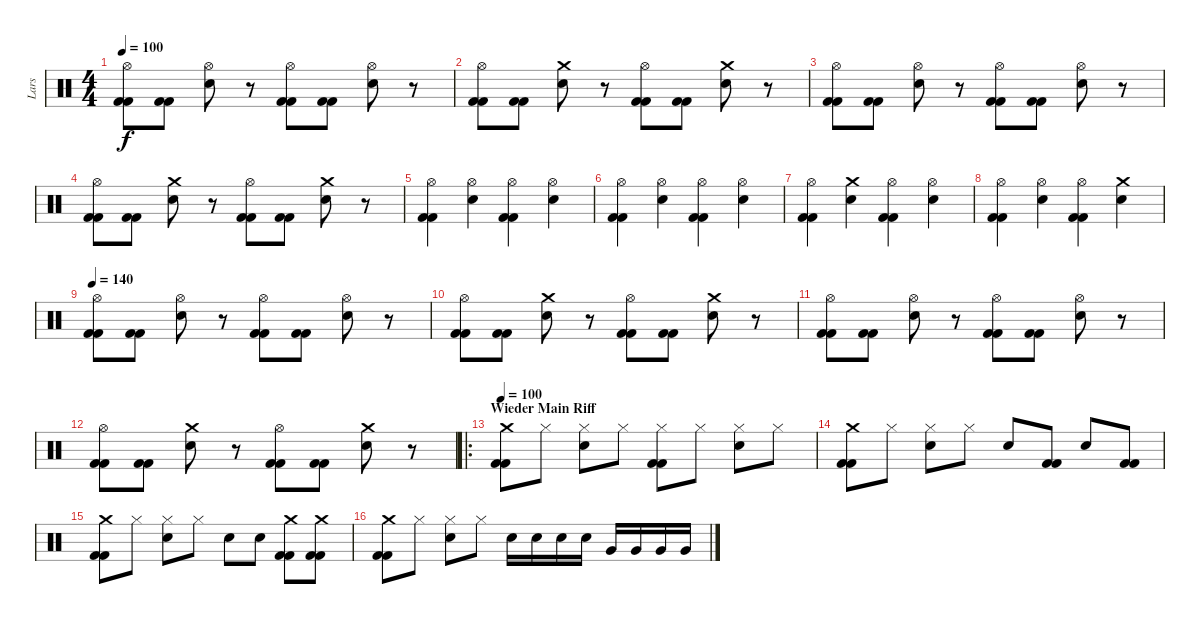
\track ("Lars" "Lars") {instrument percussion}
\staff {score}
\articulation defaults
\ts (4 4)
\tempo 100
\clef neutral
\ks c
("Hi-Hat (open)" "Kick (hit) 2" "Kick (hit) 2").8{dy f} ("Kick (hit) 2" "Kick (hit) 2").8 ("Hi-Hat (open)" "Electric Snare (hit)").8 r.8 ("Kick (hit) 2" "Kick (hit) 2" "Hi-Hat (open)").8 ("Kick (hit) 2" "Kick (hit) 2").8 ("Electric Snare (hit)" "Hi-Hat (open)").8 r.8 |
("Hi-Hat (open)" "Kick (hit) 2" "Kick (hit) 2").8 ("Kick (hit) 2" "Kick (hit) 2").8 ("Crash medium (hit)" "Electric Snare (hit)").8 r.8 ("Kick (hit) 2" "Kick (hit) 2" "Hi-Hat (open)").8 ("Kick (hit) 2" "Kick (hit) 2").8 ("Electric Snare (hit)" "Crash medium (hit)").8 r.8 |
("Hi-Hat (open)" "Kick (hit) 2" "Kick (hit) 2").8 ("Kick (hit) 2" "Kick (hit) 2").8 ("Hi-Hat (open)" "Electric Snare (hit)").8 r.8 ("Kick (hit) 2" "Kick (hit) 2" "Hi-Hat (open)").8 ("Kick (hit) 2" "Kick (hit) 2").8 ("Electric Snare (hit)" "Hi-Hat (open)").8 r.8 |
("Hi-Hat (open)" "Kick (hit) 2" "Kick (hit) 2").8 ("Kick (hit) 2" "Kick (hit) 2").8 ("Crash medium (hit)" "Electric Snare (hit)").8 r.8 ("Kick (hit) 2" "Kick (hit) 2" "Hi-Hat (open)").8 ("Kick (hit) 2" "Kick (hit) 2").8 ("Electric Snare (hit)" "Crash medium (hit)").8 r.8 |
("Hi-Hat (open)" "Kick (hit) 2" "Kick (hit) 2").4 ("Electric Snare (hit)" "Hi-Hat (open)").4 ("Hi-Hat (open)" "Kick (hit) 2" "Kick (hit) 2").4 ("Hi-Hat (open)" "Electric Snare (hit)").4 |
("Hi-Hat (open)" "Kick (hit) 2" "Kick (hit) 2").4 ("Electric Snare (hit)" "Hi-Hat (open)").4 ("Hi-Hat (open)" "Kick (hit) 2" "Kick (hit) 2").4 ("Hi-Hat (open)" "Electric Snare (hit)").4 |
("Hi-Hat (open)" "Kick (hit) 2" "Kick (hit) 2").4 ("Electric Snare (hit)" "Crash medium (hit)").4 ("Hi-Hat (open)" "Kick (hit) 2" "Kick (hit) 2").4 ("Hi-Hat (open)" "Electric Snare (hit)").4 |
("Hi-Hat (open)" "Kick (hit) 2" "Kick (hit) 2").4 ("Electric Snare (hit)" "Hi-Hat (open)").4 ("Hi-Hat (open)" "Kick (hit) 2" "Kick (hit) 2").4 ("Crash medium (hit)" "Electric Snare (hit)").4 |
\tempo 140
("Hi-Hat (open)" "Kick (hit) 2" "Kick (hit) 2").8 ("Kick (hit) 2" "Kick (hit) 2").8 ("Hi-Hat (open)" "Electric Snare (hit)").8 r.8 ("Kick (hit) 2" "Kick (hit) 2" "Hi-Hat (open)").8 ("Kick (hit) 2" "Kick (hit) 2").8 ("Electric Snare (hit)" "Hi-Hat (open)").8 r.8 |
("Hi-Hat (open)" "Kick (hit) 2" "Kick (hit) 2").8 ("Kick (hit) 2" "Kick (hit) 2").8 ("Crash medium (hit)" "Electric Snare (hit)").8 r.8 ("Kick (hit) 2" "Kick (hit) 2" "Hi-Hat (open)").8 ("Kick (hit) 2" "Kick (hit) 2").8 ("Electric Snare (hit)" "Crash medium (hit)").8 r.8 |
("Hi-Hat (open)" "Kick (hit) 2" "Kick (hit) 2").8 ("Kick (hit) 2" "Kick (hit) 2").8 ("Hi-Hat (open)" "Electric Snare (hit)").8 r.8 ("Kick (hit) 2" "Kick (hit) 2" "Hi-Hat (open)").8 ("Kick (hit) 2" "Kick (hit) 2").8 ("Electric Snare (hit)" "Hi-Hat (open)").8 r.8 |
("Hi-Hat (open)" "Kick (hit) 2" "Kick (hit) 2").8 ("Kick (hit) 2" "Kick (hit) 2").8 ("Crash medium (hit)" "Electric Snare (hit)").8 r.8 ("Kick (hit) 2" "Kick (hit) 2" "Hi-Hat (open)").8 ("Kick (hit) 2" "Kick (hit) 2").8 ("Electric Snare (hit)" "Crash medium (hit)").8 r.8 |
\ro
\section ("" "Wieder Main Riff")
\tempo 100
("Crash medium (hit)" "Kick (hit) 2" "Kick (hit) 2").8 "Hi-Hat (closed)".8 ("Electric Snare (hit)" "Hi-Hat (closed)").8 "Hi-Hat (closed)".8 ("Kick (hit) 2" "Kick (hit) 2" "Hi-Hat (closed)").8 "Hi-Hat (closed)".8 ("Hi-Hat (closed)" "Electric Snare (hit)").8 "Hi-Hat (closed)".8 |
("Crash medium (hit)" "Kick (hit) 2" "Kick (hit) 2").8 "Hi-Hat (closed)".8 ("Electric Snare (hit)" "Hi-Hat (closed)").8 "Hi-Hat (closed)".8 "Electric Snare (hit)".8 ("Kick (hit) 2" "Kick (hit) 2").8 "Electric Snare (hit)".8 ("Kick (hit) 2" "Kick (hit) 2").8 |
("Crash medium (hit)" "Kick (hit) 2" "Kick (hit) 2").8 "Hi-Hat (closed)".8 ("Electric Snare (hit)" "Hi-Hat (closed)").8 "Hi-Hat (closed)".8 "Electric Snare (hit)".8 "Electric Snare (hit)".8 ("Crash medium (hit)" "Kick (hit) 2" "Kick (hit) 2").8 ("Kick (hit) 2" "Kick (hit) 2" "Crash medium (hit)").8 |
("Crash medium (hit)" "Kick (hit) 2" "Kick (hit) 2").8 "Hi-Hat (closed)".8 ("Electric Snare (hit)" "Hi-Hat (closed)").8 "Hi-Hat (closed)".8 "Electric Snare (hit)".16 "Electric Snare (hit)".16 "Electric Snare (hit)".16 "Electric Snare (hit)".16 "Very Low Tom (hit)".16 "Very Low Tom (hit)".16 "Very Low Tom (hit)".16 "Very Low Tom (hit)".16
